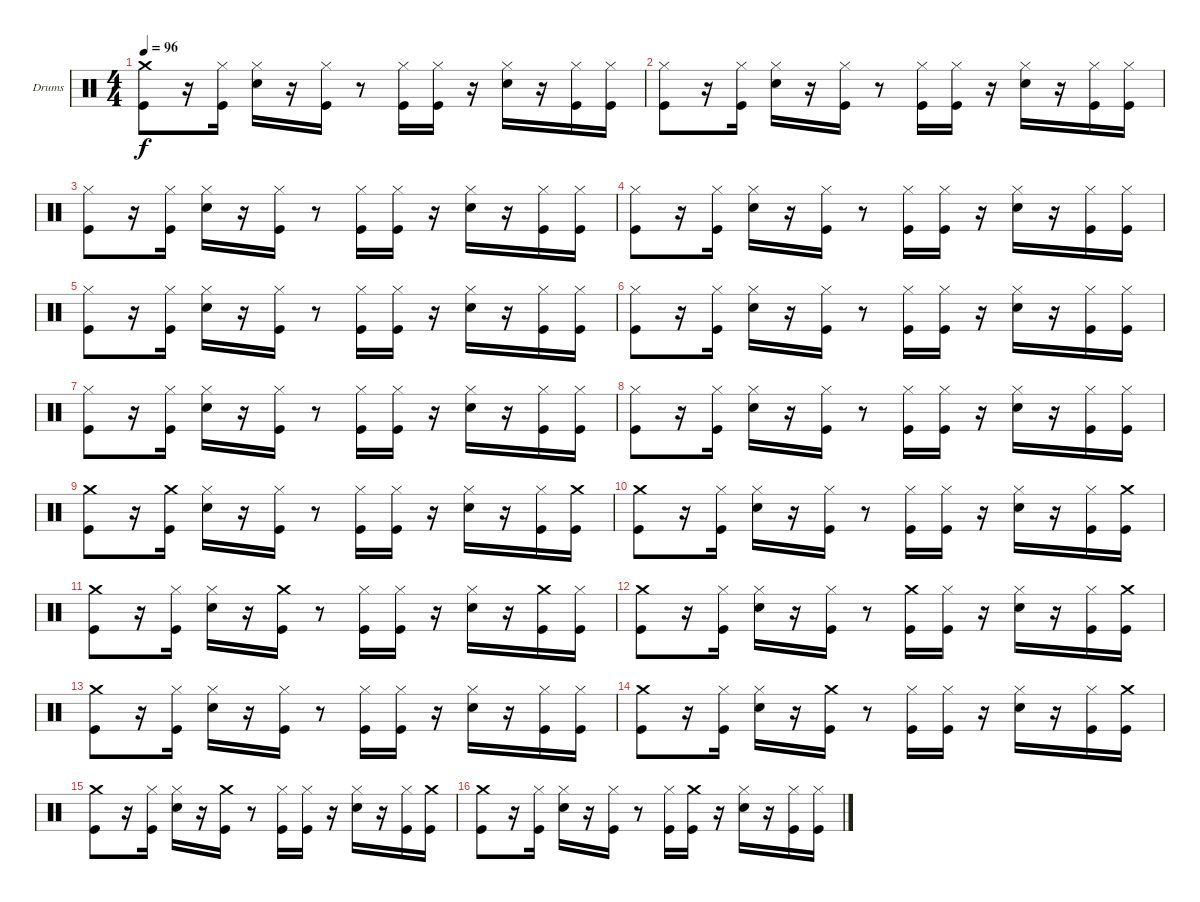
\defaultSystemsLayout 4
\bracketExtendMode groupsimilarinstruments
\firstSystemTrackNameOrientation horizontal
\otherSystemsTrackNameOrientation horizontal
\track ("Павел Тетерин(Pa$ok)" "Drums") {instrument percussion}
\staff {score}
\articulation defaults
\ts (4 4)
\tempo 96
\clef neutral
\ks c
("Crash medium (hit)" "Kick (hit)").8{dy f} r.16 ("Hi-Hat (closed)" "Kick (hit)").16 ("Snare (hit) 2" "Hi-Hat (closed)").16 r.16 ("Hi-Hat (closed)" "Kick (hit)").16 r.8 ("Hi-Hat (closed)" "Kick (hit)").16 ("Hi-Hat (closed)" "Kick (hit)").16 r.16 ("Snare (hit) 2" "Hi-Hat (closed)").16 r.16 ("Hi-Hat (closed)" "Kick (hit)").16 ("Hi-Hat (closed)" "Kick (hit)").16 |
("Hi-Hat (closed)" "Kick (hit)").8 r.16 ("Hi-Hat (closed)" "Kick (hit)").16 ("Snare (hit) 2" "Hi-Hat (closed)").16 r.16 ("Hi-Hat (closed)" "Kick (hit)").16 r.8 ("Hi-Hat (closed)" "Kick (hit)").16 ("Hi-Hat (closed)" "Kick (hit)").16 r.16 ("Snare (hit) 2" "Hi-Hat (closed)").16 r.16 ("Hi-Hat (closed)" "Kick (hit)").16 ("Hi-Hat (closed)" "Kick (hit)").16 |
("Hi-Hat (closed)" "Kick (hit)").8 r.16 ("Hi-Hat (closed)" "Kick (hit)").16 ("Snare (hit) 2" "Hi-Hat (closed)").16 r.16 ("Hi-Hat (closed)" "Kick (hit)").16 r.8 ("Hi-Hat (closed)" "Kick (hit)").16 ("Hi-Hat (closed)" "Kick (hit)").16 r.16 ("Snare (hit) 2" "Hi-Hat (closed)").16 r.16 ("Hi-Hat (closed)" "Kick (hit)").16 ("Hi-Hat (closed)" "Kick (hit)").16 |
("Hi-Hat (closed)" "Kick (hit)").8 r.16 ("Hi-Hat (closed)" "Kick (hit)").16 ("Snare (hit) 2" "Hi-Hat (closed)").16 r.16 ("Hi-Hat (closed)" "Kick (hit)").16 r.8 ("Hi-Hat (closed)" "Kick (hit)").16 ("Hi-Hat (closed)" "Kick (hit)").16 r.16 ("Snare (hit) 2" "Hi-Hat (closed)").16 r.16 ("Hi-Hat (closed)" "Kick (hit)").16 ("Hi-Hat (closed)" "Kick (hit)").16 |
("Hi-Hat (closed)" "Kick (hit)").8 r.16 ("Hi-Hat (closed)" "Kick (hit)").16 ("Snare (hit) 2" "Hi-Hat (closed)").16 r.16 ("Hi-Hat (closed)" "Kick (hit)").16 r.8 ("Hi-Hat (closed)" "Kick (hit)").16 ("Hi-Hat (closed)" "Kick (hit)").16 r.16 ("Snare (hit) 2" "Hi-Hat (closed)").16 r.16 ("Hi-Hat (closed)" "Kick (hit)").16 ("Hi-Hat (closed)" "Kick (hit)").16 |
("Hi-Hat (closed)" "Kick (hit)").8 r.16 ("Hi-Hat (closed)" "Kick (hit)").16 ("Snare (hit) 2" "Hi-Hat (closed)").16 r.16 ("Hi-Hat (closed)" "Kick (hit)").16 r.8 ("Hi-Hat (closed)" "Kick (hit)").16 ("Hi-Hat (closed)" "Kick (hit)").16 r.16 ("Snare (hit) 2" "Hi-Hat (closed)").16 r.16 ("Hi-Hat (closed)" "Kick (hit)").16 ("Hi-Hat (closed)" "Kick (hit)").16 |
("Hi-Hat (closed)" "Kick (hit)").8 r.16 ("Hi-Hat (closed)" "Kick (hit)").16 ("Snare (hit) 2" "Hi-Hat (closed)").16 r.16 ("Hi-Hat (closed)" "Kick (hit)").16 r.8 ("Hi-Hat (closed)" "Kick (hit)").16 ("Hi-Hat (closed)" "Kick (hit)").16 r.16 ("Snare (hit) 2" "Hi-Hat (closed)").16 r.16 ("Hi-Hat (closed)" "Kick (hit)").16 ("Hi-Hat (closed)" "Kick (hit)").16 |
("Hi-Hat (closed)" "Kick (hit)").8 r.16 ("Hi-Hat (closed)" "Kick (hit)").16 ("Snare (hit) 2" "Hi-Hat (closed)").16 r.16 ("Hi-Hat (closed)" "Kick (hit)").16 r.8 ("Hi-Hat (closed)" "Kick (hit)").16 ("Hi-Hat (closed)" "Kick (hit)").16 r.16 ("Snare (hit) 2" "Hi-Hat (closed)").16 r.16 ("Hi-Hat (closed)" "Kick (hit)").16 ("Hi-Hat (closed)" "Kick (hit)").16 |
("Crash medium (hit)" "Kick (hit)").8 r.16 ("Crash medium (hit)" "Kick (hit)").16 ("Snare (hit) 2" "Hi-Hat (closed)").16 r.16 ("Hi-Hat (closed)" "Kick (hit)").16 r.8 ("Hi-Hat (closed)" "Kick (hit)").16 ("Hi-Hat (closed)" "Kick (hit)").16 r.16 ("Snare (hit) 2" "Hi-Hat (closed)").16 r.16 ("Hi-Hat (closed)" "Kick (hit)").16 ("Crash medium (hit)" "Kick (hit)").16 |
("Crash medium (hit)" "Kick (hit)").8 r.16 ("Hi-Hat (closed)" "Kick (hit)").16 ("Snare (hit) 2" "Hi-Hat (closed)").16 r.16 ("Hi-Hat (closed)" "Kick (hit)").16 r.8 ("Hi-Hat (closed)" "Kick (hit)").16 ("Hi-Hat (closed)" "Kick (hit)").16 r.16 ("Snare (hit) 2" "Hi-Hat (closed)").16 r.16 ("Hi-Hat (closed)" "Kick (hit)").16 ("Crash medium (hit)" "Kick (hit)").16 |
("Crash medium (hit)" "Kick (hit)").8 r.16 ("Hi-Hat (closed)" "Kick (hit)").16 ("Snare (hit) 2" "Hi-Hat (closed)").16 r.16 ("Crash medium (hit)" "Kick (hit)").16 r.8 ("Hi-Hat (closed)" "Kick (hit)").16 ("Hi-Hat (closed)" "Kick (hit)").16 r.16 ("Snare (hit) 2" "Hi-Hat (closed)").16 r.16 ("Crash medium (hit)" "Kick (hit)").16 ("Hi-Hat (closed)" "Kick (hit)").16 |
("Crash medium (hit)" "Kick (hit)").8 r.16 ("Hi-Hat (closed)" "Kick (hit)").16 ("Snare (hit) 2" "Hi-Hat (closed)").16 r.16 ("Hi-Hat (closed)" "Kick (hit)").16 r.8 ("Crash medium (hit)" "Kick (hit)").16 ("Hi-Hat (closed)" "Kick (hit)").16 r.16 ("Snare (hit) 2" "Hi-Hat (closed)").16 r.16 ("Hi-Hat (closed)" "Kick (hit)").16 ("Crash medium (hit)" "Kick (hit)").16 |
("Crash medium (hit)" "Kick (hit)").8 r.16 ("Hi-Hat (closed)" "Kick (hit)").16 ("Snare (hit) 2" "Hi-Hat (closed)").16 r.16 ("Hi-Hat (closed)" "Kick (hit)").16 r.8 ("Hi-Hat (closed)" "Kick (hit)").16 ("Hi-Hat (closed)" "Kick (hit)").16 r.16 ("Snare (hit) 2" "Hi-Hat (closed)").16 r.16 ("Hi-Hat (closed)" "Kick (hit)").16 ("Hi-Hat (closed)" "Kick (hit)").16 |
("Crash medium (hit)" "Kick (hit)").8 r.16 ("Hi-Hat (closed)" "Kick (hit)").16 ("Snare (hit) 2" "Hi-Hat (closed)").16 r.16 ("Crash medium (hit)" "Kick (hit)").16 r.8 ("Hi-Hat (closed)" "Kick (hit)").16 ("Hi-Hat (closed)" "Kick (hit)").16 r.16 ("Snare (hit) 2" "Hi-Hat (closed)").16 r.16 ("Hi-Hat (closed)" "Kick (hit)").16 ("Crash medium (hit)" "Kick (hit)").16 |
("Crash medium (hit)" "Kick (hit)").8 r.16 ("Hi-Hat (closed)" "Kick (hit)").16 ("Snare (hit) 2" "Hi-Hat (closed)").16 r.16 ("Crash medium (hit)" "Kick (hit)").16 r.8 ("Hi-Hat (closed)" "Kick (hit)").16 ("Hi-Hat (closed)" "Kick (hit)").16 r.16 ("Snare (hit) 2" "Hi-Hat (closed)").16 r.16 ("Hi-Hat (closed)" "Kick (hit)").16 ("Crash medium (hit)" "Kick (hit)").16 |
("Crash medium (hit)" "Kick (hit)").8 r.16 ("Hi-Hat (closed)" "Kick (hit)").16 ("Snare (hit) 2" "Hi-Hat (closed)").16 r.16 ("Hi-Hat (closed)" "Kick (hit)").16 r.8 ("Hi-Hat (closed)" "Kick (hit)").16 ("Crash medium (hit)" "Kick (hit)").16 r.16 ("Snare (hit) 2" "Hi-Hat (closed)").16 r.16 ("Hi-Hat (closed)" "Kick (hit)").16 ("Hi-Hat (closed)" "Kick (hit)").16
